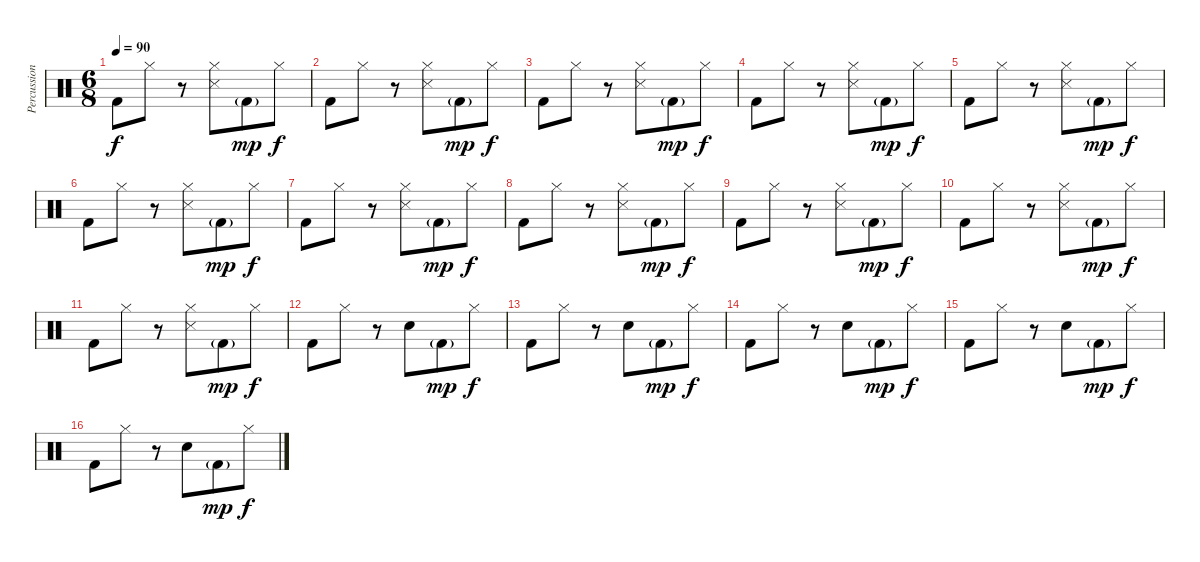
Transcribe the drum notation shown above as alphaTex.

\track ("Percussion" "Percussion") {instrument percussion}
\staff {score}
\articulation defaults
\ts (6 8)
\tempo 90
\clef neutral
\ks c "Kick (hit) 2".8{dy f} "Hi-Hat (closed)".8
r.8 ("Hi-Hat (closed)" "Snare (side stick) 3").8 "Kick (hit) 2"{g}.8{dy mp} "Hi-Hat (closed)".8{dy f} |
"Kick (hit) 2".8 "Hi-Hat (closed)".8 r.8 ("Hi-Hat (closed)" "Snare (side stick) 3").8 "Kick (hit) 2"{g}.8{dy mp} "Hi-Hat (closed)".8{dy f} |
"Kick (hit) 2".8 "Hi-Hat (closed)".8 r.8 ("Hi-Hat (closed)" "Snare (side stick) 3").8 "Kick (hit) 2"{g}.8{dy mp} "Hi-Hat (closed)".8{dy f} |
"Kick (hit) 2".8 "Hi-Hat (closed)".8 r.8 ("Hi-Hat (closed)" "Snare (side stick) 3").8 "Kick (hit) 2"{g}.8{dy mp} "Hi-Hat (closed)".8{dy f} |
"Kick (hit) 2".8 "Hi-Hat (closed)".8 r.8 ("Hi-Hat (closed)" "Snare (side stick) 3").8 "Kick (hit) 2"{g}.8{dy mp} "Hi-Hat (closed)".8{dy f} |
"Kick (hit) 2".8 "Hi-Hat (closed)".8 r.8 ("Hi-Hat (closed)" "Snare (side stick) 3").8 "Kick (hit) 2"{g}.8{dy mp} "Hi-Hat (closed)".8{dy f} |
"Kick (hit) 2".8 "Hi-Hat (closed)".8 r.8 ("Hi-Hat (closed)" "Snare (side stick) 3").8 "Kick (hit) 2"{g}.8{dy mp} "Hi-Hat (closed)".8{dy f} |
"Kick (hit) 2".8 "Hi-Hat (closed)".8 r.8 ("Hi-Hat (closed)" "Snare (side stick) 3").8 "Kick (hit) 2"{g}.8{dy mp} "Hi-Hat (closed)".8{dy f} |
"Kick (hit) 2".8 "Hi-Hat (closed)".8 r.8 ("Hi-Hat (closed)" "Snare (side stick) 3").8 "Kick (hit) 2"{g}.8{dy mp} "Hi-Hat (closed)".8{dy f} |
"Kick (hit) 2".8 "Hi-Hat (closed)".8 r.8 ("Hi-Hat (closed)" "Snare (side stick) 3").8 "Kick (hit) 2"{g}.8{dy mp} "Hi-Hat (closed)".8{dy f} |
"Kick (hit) 2".8 "Hi-Hat (closed)".8 r.8 ("Hi-Hat (closed)" "Snare (side stick) 3").8 "Kick (hit) 2"{g}.8{dy mp} "Hi-Hat (closed)".8{dy f} |
"Kick (hit) 2".8 "Hi-Hat (closed)".8 r.8 "Snare (hit) 2".8 "Kick (hit) 2"{g}.8{dy mp} "Hi-Hat (closed)".8{dy f} |
"Kick (hit) 2".8 "Hi-Hat (closed)".8 r.8 "Snare (hit) 2".8 "Kick (hit) 2"{g}.8{dy mp} "Hi-Hat (closed)".8{dy f} |
"Kick (hit) 2".8 "Hi-Hat (closed)".8 r.8 "Snare (hit) 2".8 "Kick (hit) 2"{g}.8{dy mp} "Hi-Hat (closed)".8{dy f} |
"Kick (hit) 2".8 "Hi-Hat (closed)".8 r.8 "Snare (hit) 2".8 "Kick (hit) 2"{g}.8{dy mp} "Hi-Hat (closed)".8{dy f} |
"Kick (hit) 2".8 "Hi-Hat (closed)".8 r.8 "Snare (hit) 2".8 "Kick (hit) 2"{g}.8{dy mp} "Hi-Hat (closed)".8{dy f}
